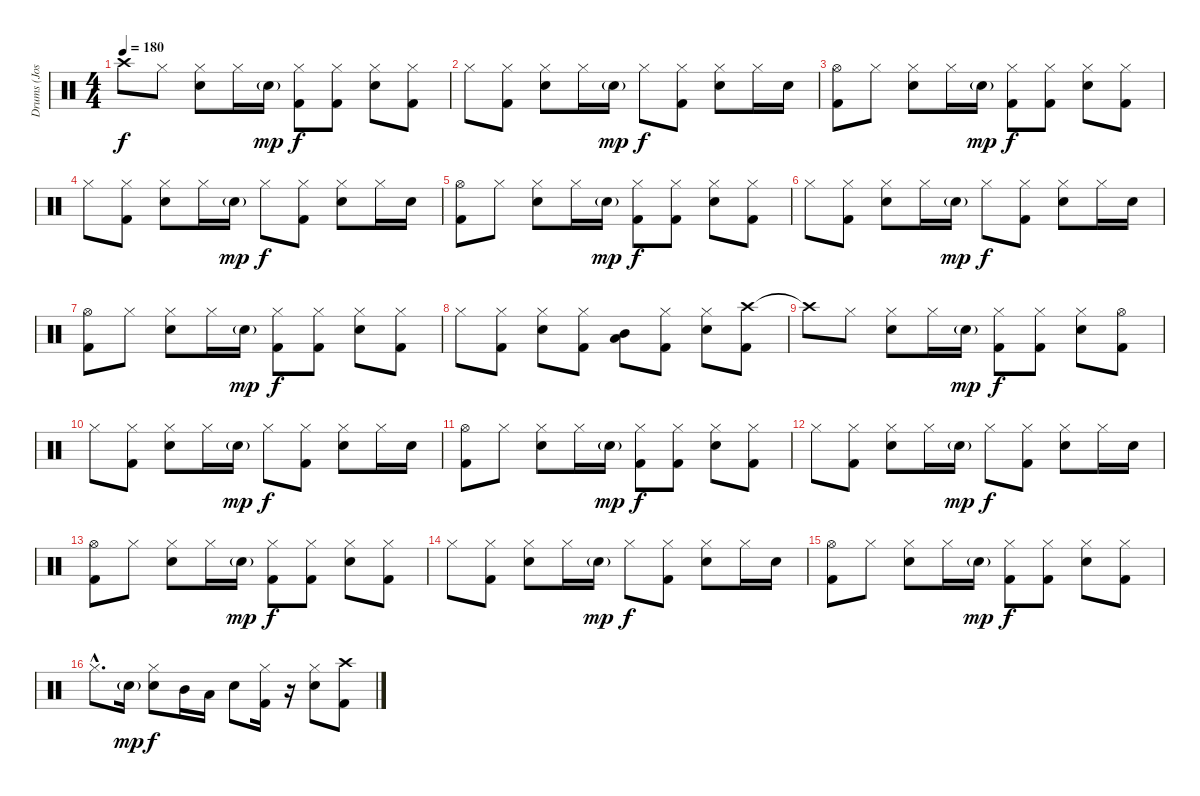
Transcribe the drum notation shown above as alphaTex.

\track ("Drums (Jose Pasilas II)" "Drums (Jos") {instrument percussion}
\staff {score}
\articulation defaults
\ts (4 4)
\tempo 180
\clef neutral
\ks c "Crash high (hit)"{t}.8{dy f} "Hi-Hat (closed)".8
("Hi-Hat (closed)" "Snare (hit) 2").8 "Hi-Hat (closed)".16 "Snare (hit) 2"{g}.16{dy mp} ("Kick (hit) 2" "Hi-Hat (closed)").8{dy f} ("Hi-Hat (closed)" "Kick (hit) 2").8 ("Snare (hit) 2" "Hi-Hat (closed)").8 ("Kick (hit) 2" "Hi-Hat (closed)").8 |
"Hi-Hat (closed)".8 ("Kick (hit) 2" "Hi-Hat (closed)").8 ("Snare (hit) 2" "Hi-Hat (closed)").8 "Hi-Hat (closed)".16 "Snare (hit) 2"{g}.16{dy mp} "Hi-Hat (closed)".8{dy f} ("Hi-Hat (closed)" "Kick (hit) 2").8 ("Snare (hit) 2" "Hi-Hat (closed)").8 "Hi-Hat (closed)".16 "Snare (hit) 2".16 |
("Hi-Hat (open)" "Kick (hit) 2").8 "Hi-Hat (closed)".8 ("Hi-Hat (closed)" "Snare (hit) 2").8 "Hi-Hat (closed)".16 "Snare (hit) 2"{g}.16{dy mp} ("Kick (hit) 2" "Hi-Hat (closed)").8{dy f} ("Hi-Hat (closed)" "Kick (hit) 2").8 ("Snare (hit) 2" "Hi-Hat (closed)").8 ("Kick (hit) 2" "Hi-Hat (closed)").8 |
"Hi-Hat (closed)".8 ("Kick (hit) 2" "Hi-Hat (closed)").8 ("Snare (hit) 2" "Hi-Hat (closed)").8 "Hi-Hat (closed)".16 "Snare (hit) 2"{g}.16{dy mp} "Hi-Hat (closed)".8{dy f} ("Hi-Hat (closed)" "Kick (hit) 2").8 ("Snare (hit) 2" "Hi-Hat (closed)").8 "Hi-Hat (closed)".16 "Snare (hit) 2".16 |
("Hi-Hat (open)" "Kick (hit) 2").8 "Hi-Hat (closed)".8 ("Hi-Hat (closed)" "Snare (hit) 2").8 "Hi-Hat (closed)".16 "Snare (hit) 2"{g}.16{dy mp} ("Kick (hit) 2" "Hi-Hat (closed)").8{dy f} ("Hi-Hat (closed)" "Kick (hit) 2").8 ("Snare (hit) 2" "Hi-Hat (closed)").8 ("Kick (hit) 2" "Hi-Hat (closed)").8 |
"Hi-Hat (closed)".8 ("Kick (hit) 2" "Hi-Hat (closed)").8 ("Snare (hit) 2" "Hi-Hat (closed)").8 "Hi-Hat (closed)".16 "Snare (hit) 2"{g}.16{dy mp} "Hi-Hat (closed)".8{dy f} ("Hi-Hat (closed)" "Kick (hit) 2").8 ("Snare (hit) 2" "Hi-Hat (closed)").8 "Hi-Hat (closed)".16 "Snare (hit) 2".16 |
("Hi-Hat (open)" "Kick (hit) 2").8 "Hi-Hat (closed)".8 ("Hi-Hat (closed)" "Snare (hit) 2").8 "Hi-Hat (closed)".16 "Snare (hit) 2"{g}.16{dy mp} ("Kick (hit) 2" "Hi-Hat (closed)").8{dy f} ("Hi-Hat (closed)" "Kick (hit) 2").8 ("Snare (hit) 2" "Hi-Hat (closed)").8 ("Kick (hit) 2" "Hi-Hat (closed)").8 |
"Hi-Hat (closed)".8 ("Kick (hit) 2" "Hi-Hat (closed)").8 ("Snare (hit) 2" "Hi-Hat (closed)").8 ("Kick (hit) 2" "Hi-Hat (closed)").8 ("Mid Tom (hit)" "Low Tom (hit)").8{bu 240} ("Hi-Hat (closed)" "Kick (hit) 2").8 ("Snare (hit) 2" "Hi-Hat (closed)").8 ("Crash high (hit)" "Kick (hit) 2").8 |
"Crash high (hit)"{t}.8 "Hi-Hat (closed)".8 ("Hi-Hat (closed)" "Snare (hit) 2").8 "Hi-Hat (closed)".16 "Snare (hit) 2"{g}.16{dy mp} ("Kick (hit) 2" "Hi-Hat (closed)").8{dy f} ("Hi-Hat (closed)" "Kick (hit) 2").8 ("Snare (hit) 2" "Hi-Hat (closed)").8 ("Kick (hit) 2" "Hi-Hat (open)").8 |
"Hi-Hat (closed)".8 ("Kick (hit) 2" "Hi-Hat (closed)").8 ("Snare (hit) 2" "Hi-Hat (closed)").8 "Hi-Hat (closed)".16 "Snare (hit) 2"{g}.16{dy mp} "Hi-Hat (closed)".8{dy f} ("Hi-Hat (closed)" "Kick (hit) 2").8 ("Snare (hit) 2" "Hi-Hat (closed)").8 "Hi-Hat (closed)".16 "Snare (hit) 2".16 |
("Hi-Hat (open)" "Kick (hit) 2").8 "Hi-Hat (closed)".8 ("Hi-Hat (closed)" "Snare (hit) 2").8 "Hi-Hat (closed)".16 "Snare (hit) 2"{g}.16{dy mp} ("Kick (hit) 2" "Hi-Hat (closed)").8{dy f} ("Hi-Hat (closed)" "Kick (hit) 2").8 ("Snare (hit) 2" "Hi-Hat (closed)").8 ("Kick (hit) 2" "Hi-Hat (closed)").8 |
"Hi-Hat (closed)".8 ("Kick (hit) 2" "Hi-Hat (closed)").8 ("Snare (hit) 2" "Hi-Hat (closed)").8 "Hi-Hat (closed)".16 "Snare (hit) 2"{g}.16{dy mp} "Hi-Hat (closed)".8{dy f} ("Hi-Hat (closed)" "Kick (hit) 2").8 ("Snare (hit) 2" "Hi-Hat (closed)").8 "Hi-Hat (closed)".16 "Snare (hit) 2".16 |
("Hi-Hat (open)" "Kick (hit) 2").8 "Hi-Hat (closed)".8 ("Hi-Hat (closed)" "Snare (hit) 2").8 "Hi-Hat (closed)".16 "Snare (hit) 2"{g}.16{dy mp} ("Kick (hit) 2" "Hi-Hat (closed)").8{dy f} ("Hi-Hat (closed)" "Kick (hit) 2").8 ("Snare (hit) 2" "Hi-Hat (closed)").8 ("Kick (hit) 2" "Hi-Hat (closed)").8 |
"Hi-Hat (closed)".8 ("Kick (hit) 2" "Hi-Hat (closed)").8 ("Snare (hit) 2" "Hi-Hat (closed)").8 "Hi-Hat (closed)".16 "Snare (hit) 2"{g}.16{dy mp} "Hi-Hat (closed)".8{dy f} ("Hi-Hat (closed)" "Kick (hit) 2").8 ("Snare (hit) 2" "Hi-Hat (closed)").8 "Hi-Hat (closed)".16 "Snare (hit) 2".16 |
("Hi-Hat (open)" "Kick (hit) 2").8 "Hi-Hat (closed)".8 ("Hi-Hat (closed)" "Snare (hit) 2").8 "Hi-Hat (closed)".16 "Snare (hit) 2"{g}.16{dy mp} ("Kick (hit) 2" "Hi-Hat (closed)").8{dy f} ("Hi-Hat (closed)" "Kick (hit) 2").8 ("Snare (hit) 2" "Hi-Hat (closed)").8 ("Kick (hit) 2" "Hi-Hat (closed)").8 |
"Hi-Hat (closed)"{hac}.8{d} "Snare (hit) 2"{g}.16{dy mp} ("Snare (hit) 2" "Hi-Hat (closed)").8{dy f} "Mid Tom (hit)".16 "Low Tom (hit)".16 "Snare (hit) 2".8 ("Kick (hit) 2" "Hi-Hat (closed)").16 r.16 ("Snare (hit) 2" "Hi-Hat (closed)").8 ("Kick (hit) 2" "Crash high (hit)").8
